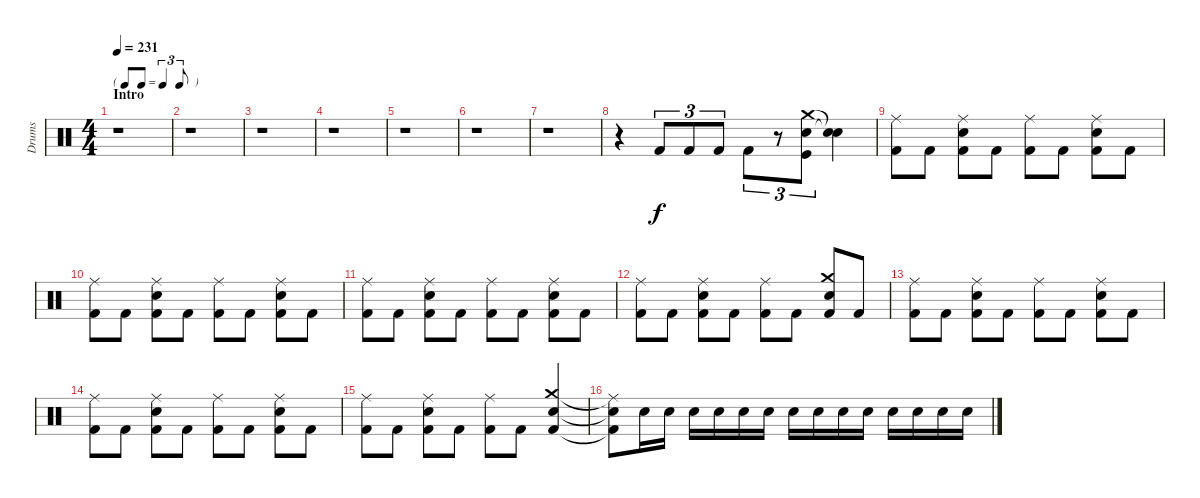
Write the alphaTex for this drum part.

\track ("Drums" "Drums") {instrument percussion}
\staff {score}
\articulation defaults
\ts (4 4)
\tf triplet8th
\section ("" "Intro")
\tempo 231
\clef neutral
\ks c
r.1{dy f} |
r.1 |
r.1 |
r.1 |
r.1 |
r.1 |
r.1 |
r.4 "Kick (hit) 2".8{tu (3 2)} "Kick (hit) 2".8{tu (3 2)} "Kick (hit) 2".8{tu (3 2)} "Kick (hit) 2".8{tu (3 2)} r.8{tu (3 2)} ("Crash medium (hit)" "Electric Snare (hit)" "Kick (hit)").8{tu (3 2)} ("Snare (hit)"{t} "Snare (hit)"{t}).4 |
("Ride (middle)" "Kick (hit) 2").8 "Kick (hit) 2".8 ("Ride (middle)" "Electric Snare (hit)" "Kick (hit) 2").8 "Kick (hit) 2".8 ("Ride (middle)" "Kick (hit) 2").8 "Kick (hit) 2".8 ("Ride (middle)" "Electric Snare (hit)" "Kick (hit) 2").8 "Kick (hit) 2".8 |
("Ride (middle)" "Kick (hit) 2").8 "Kick (hit) 2".8 ("Ride (middle)" "Electric Snare (hit)" "Kick (hit) 2").8 "Kick (hit) 2".8 ("Ride (middle)" "Kick (hit) 2").8 "Kick (hit) 2".8 ("Ride (middle)" "Electric Snare (hit)" "Kick (hit) 2").8 "Kick (hit) 2".8 |
("Ride (middle)" "Kick (hit) 2").8 "Kick (hit) 2".8 ("Ride (middle)" "Electric Snare (hit)" "Kick (hit) 2").8 "Kick (hit) 2".8 ("Ride (middle)" "Kick (hit) 2").8 "Kick (hit) 2".8 ("Ride (middle)" "Electric Snare (hit)" "Kick (hit) 2").8 "Kick (hit) 2".8 |
("Ride (middle)" "Kick (hit) 2").8 "Kick (hit) 2".8 ("Ride (middle)" "Electric Snare (hit)" "Kick (hit) 2").8 "Kick (hit) 2".8 ("Ride (middle)" "Kick (hit) 2").8 "Kick (hit) 2".8 ("Crash medium (hit)" "Electric Snare (hit)" "Kick (hit) 2").8 "Kick (hit) 2".8 |
("Ride (middle)" "Kick (hit) 2").8 "Kick (hit) 2".8 ("Ride (middle)" "Electric Snare (hit)" "Kick (hit) 2").8 "Kick (hit) 2".8 ("Ride (middle)" "Kick (hit) 2").8 "Kick (hit) 2".8 ("Ride (middle)" "Electric Snare (hit)" "Kick (hit) 2").8 "Kick (hit) 2".8 |
("Ride (middle)" "Kick (hit) 2").8 "Kick (hit) 2".8 ("Ride (middle)" "Electric Snare (hit)" "Kick (hit) 2").8 "Kick (hit) 2".8 ("Ride (middle)" "Kick (hit) 2").8 "Kick (hit) 2".8 ("Ride (middle)" "Electric Snare (hit)" "Kick (hit) 2").8 "Kick (hit) 2".8 |
("Ride (middle)" "Kick (hit) 2").8 "Kick (hit) 2".8 ("Ride (middle)" "Electric Snare (hit)" "Kick (hit) 2").8 "Kick (hit) 2".8 ("Ride (middle)" "Kick (hit) 2").8 "Kick (hit) 2".8 ("Crash medium (hit)" "Electric Snare (hit)" "Kick (hit) 2").4 |
("Ride (middle)"{t} "Electric Snare (hit)"{t} "Kick (hit) 2"{t}).8 "Electric Snare (hit)".16{volume 0} "Electric Snare (hit)".16{volume 16} "Electric Snare (hit)".16 "Electric Snare (hit)".16 "Electric Snare (hit)".16 "Electric Snare (hit)".16 "Electric Snare (hit)".16 "Electric Snare (hit)".16 "Electric Snare (hit)".16 "Electric Snare (hit)".16 "Electric Snare (hit)".16 "Electric Snare (hit)".16 "Electric Snare (hit)".16 "Electric Snare (hit)".16
